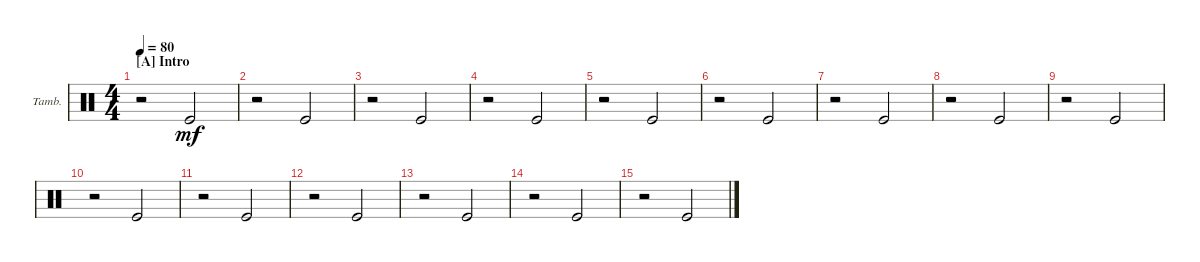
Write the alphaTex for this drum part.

\defaultSystemsLayout 4
\bracketExtendMode groupsimilarinstruments
\firstSystemTrackNameOrientation horizontal
\otherSystemsTrackNameOrientation horizontal
\track ("Tambourine" "Tamb.") {instrument percussion}
\staff {score}
\articulation defaults
\ts (4 4)
\section ("A" "Intro")
\tempo 80
\clef neutral
\scale
0.474178
\ks c
r.2{dy mf} "Kick (hit)".2 |
\scale
0.262911 r.2 "Kick (hit)".2 |
\scale
0.262911 r.2 "Kick (hit)".2 |
\scale
0.333333 r.2 "Kick (hit)".2 |
\scale
0.333333 r.2 "Kick (hit)".2 |
\scale
0.333333 r.2 "Kick (hit)".2 |
\scale
0.333333 r.2 "Kick (hit)".2 |
\scale
0.333333 r.2 "Kick (hit)".2 |
\scale
0.333333 r.2 "Kick (hit)".2 |
\scale
0.333333 r.2 "Kick (hit)".2 |
\scale
0.333333 r.2 "Kick (hit)".2 |
\scale
0.333333 r.2 "Kick (hit)".2 |
\scale
0.333333 r.2 "Kick (hit)".2 |
\scale
0.333333 r.2 "Kick (hit)".2 |
\scale
0.333333 r.2 "Kick (hit)".2 |
\scale
0.333333
